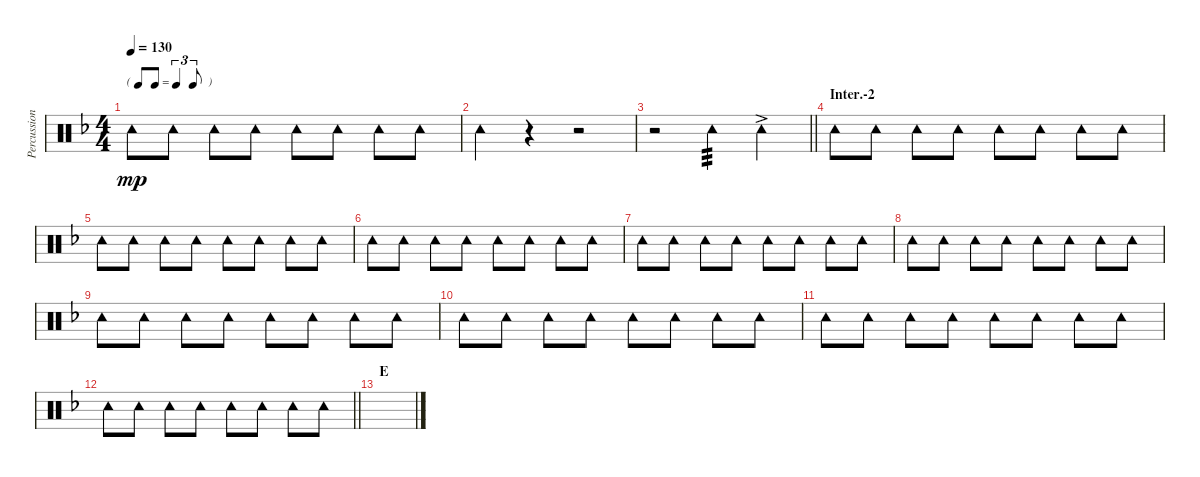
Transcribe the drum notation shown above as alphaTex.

\track ("Percussion II (Tainaka Ritsu)" "Percussion") {instrument percussion}
\staff {score}
\articulation defaults
\ts (4 4)
\tf triplet8th
\tempo 130
\clef neutral
\ks f "Tambourine (hit)".8{dy mp} "Tambourine (hit)".8 "Tambourine (hit)".8 "Tambourine (hit)".8 "Tambourine (hit)".8 "Tambourine (hit)".8 "Tambourine (hit)".8 "Tambourine (hit)".8
|
"Tambourine (hit)".4 r.4 r.2 |
\barLineRight lightlight
r.2 "Tambourine (hit)".4{tp 3} "Tambourine (hit)"{ac}.4 |
\section ("" "Inter.-2")
"Tambourine (hit)".8 "Tambourine (hit)".8 "Tambourine (hit)".8 "Tambourine (hit)".8 "Tambourine (hit)".8 "Tambourine (hit)".8 "Tambourine (hit)".8 "Tambourine (hit)".8 |
"Tambourine (hit)".8 "Tambourine (hit)".8 "Tambourine (hit)".8 "Tambourine (hit)".8 "Tambourine (hit)".8 "Tambourine (hit)".8 "Tambourine (hit)".8 "Tambourine (hit)".8 |
"Tambourine (hit)".8 "Tambourine (hit)".8 "Tambourine (hit)".8 "Tambourine (hit)".8 "Tambourine (hit)".8 "Tambourine (hit)".8 "Tambourine (hit)".8 "Tambourine (hit)".8 |
"Tambourine (hit)".8 "Tambourine (hit)".8 "Tambourine (hit)".8 "Tambourine (hit)".8 "Tambourine (hit)".8 "Tambourine (hit)".8 "Tambourine (hit)".8 "Tambourine (hit)".8 |
"Tambourine (hit)".8 "Tambourine (hit)".8 "Tambourine (hit)".8 "Tambourine (hit)".8 "Tambourine (hit)".8 "Tambourine (hit)".8 "Tambourine (hit)".8 "Tambourine (hit)".8 |
"Tambourine (hit)".8 "Tambourine (hit)".8 "Tambourine (hit)".8 "Tambourine (hit)".8 "Tambourine (hit)".8 "Tambourine (hit)".8 "Tambourine (hit)".8 "Tambourine (hit)".8 |
"Tambourine (hit)".8 "Tambourine (hit)".8 "Tambourine (hit)".8 "Tambourine (hit)".8 "Tambourine (hit)".8 "Tambourine (hit)".8 "Tambourine (hit)".8 "Tambourine (hit)".8 |
"Tambourine (hit)".8 "Tambourine (hit)".8 "Tambourine (hit)".8 "Tambourine (hit)".8 "Tambourine (hit)".8 "Tambourine (hit)".8 "Tambourine (hit)".8 "Tambourine (hit)".8 |
\barLineRight lightlight "Tambourine (hit)".8 "Tambourine (hit)".8 "Tambourine (hit)".8 "Tambourine (hit)".8 "Tambourine (hit)".8 "Tambourine (hit)".8 "Tambourine (hit)".8 "Tambourine (hit)".8
|
\section ("" "E")
